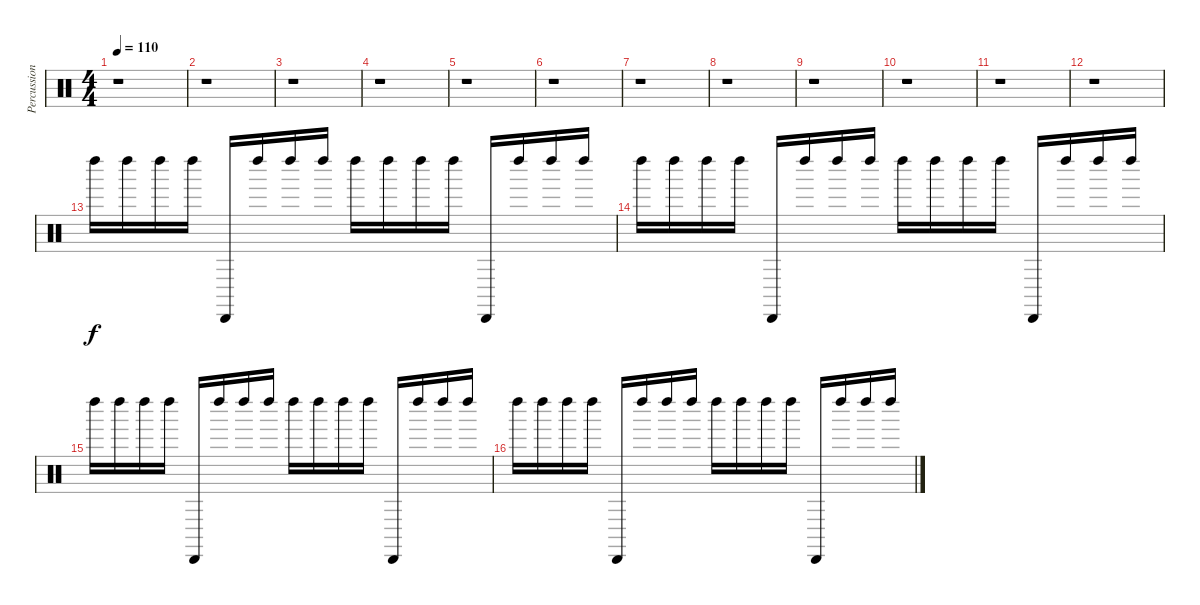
\track ("Percussions" "Percussion") {instrument percussion}
\staff {score}
\articulation defaults
\ts (4 4)
\tempo 110
\clef neutral
\ks c
r.1{dy f} |
r.1 |
r.1 |
r.1 |
r.1 |
r.1 |
r.1 |
r.1 |
r.1 |
r.1 |
r.1 |
r.1 |
"Left Maraca (hit)".16 "Left Maraca (hit)".16 "Left Maraca (hit)".16 "Left Maraca (hit)".16 "Cabasa (hit)".16 "Left Maraca (hit)".16 "Left Maraca (hit)".16 "Left Maraca (hit)".16 "Left Maraca (hit)".16 "Left Maraca (hit)".16 "Left Maraca (hit)".16 "Left Maraca (hit)".16 "Cabasa (hit)".16 "Left Maraca (hit)".16 "Left Maraca (hit)".16 "Left Maraca (hit)".16 |
"Left Maraca (hit)".16 "Left Maraca (hit)".16 "Left Maraca (hit)".16 "Left Maraca (hit)".16 "Cabasa (hit)".16 "Left Maraca (hit)".16 "Left Maraca (hit)".16 "Left Maraca (hit)".16 "Left Maraca (hit)".16 "Left Maraca (hit)".16 "Left Maraca (hit)".16 "Left Maraca (hit)".16 "Cabasa (hit)".16 "Left Maraca (hit)".16 "Left Maraca (hit)".16 "Left Maraca (hit)".16 |
"Left Maraca (hit)".16 "Left Maraca (hit)".16 "Left Maraca (hit)".16 "Left Maraca (hit)".16 "Cabasa (hit)".16 "Left Maraca (hit)".16 "Left Maraca (hit)".16 "Left Maraca (hit)".16 "Left Maraca (hit)".16 "Left Maraca (hit)".16 "Left Maraca (hit)".16 "Left Maraca (hit)".16 "Cabasa (hit)".16 "Left Maraca (hit)".16 "Left Maraca (hit)".16 "Left Maraca (hit)".16 |
"Left Maraca (hit)".16 "Left Maraca (hit)".16 "Left Maraca (hit)".16 "Left Maraca (hit)".16 "Cabasa (hit)".16 "Left Maraca (hit)".16 "Left Maraca (hit)".16 "Left Maraca (hit)".16 "Left Maraca (hit)".16 "Left Maraca (hit)".16 "Left Maraca (hit)".16 "Left Maraca (hit)".16 "Cabasa (hit)".16 "Left Maraca (hit)".16 "Left Maraca (hit)".16 "Left Maraca (hit)".16
